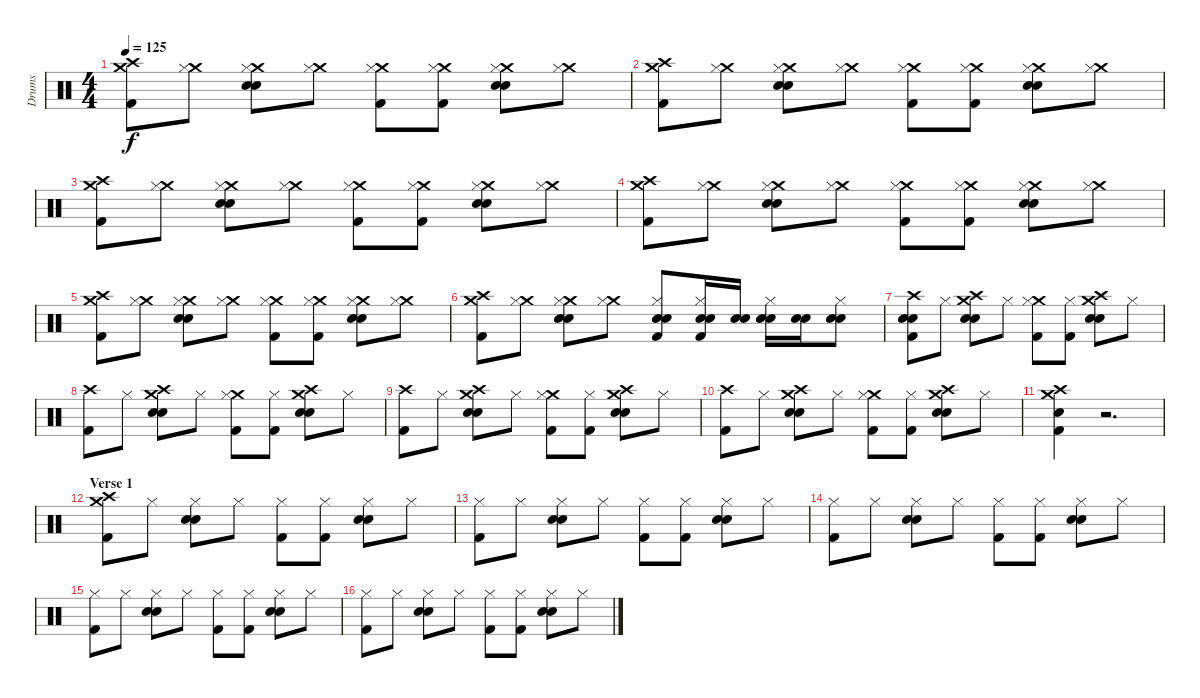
\track ("Drums" "Drums") {instrument percussion}
\staff {score}
\articulation defaults
\ts (4 4)
\tempo 125
\clef neutral
\ks c
("Crash medium (hit)" "Crash high (hit)" "Kick (hit) 2").8{dy f} ("Crash medium (hit)" "Hi-Hat (closed)").8 ("Crash medium (hit)" "Hi-Hat (closed)" "Snare (hit) 2" "Snare (hit) 2").8 ("Crash medium (hit)" "Hi-Hat (closed)").8 ("Crash medium (hit)" "Hi-Hat (closed)" "Kick (hit) 2").8 ("Crash medium (hit)" "Hi-Hat (closed)" "Kick (hit) 2").8 ("Crash medium (hit)" "Hi-Hat (closed)" "Snare (hit) 2" "Snare (hit) 2").8 ("Crash medium (hit)" "Hi-Hat (closed)").8 |
("Crash medium (hit)" "Crash high (hit)" "Kick (hit) 2").8 ("Crash medium (hit)" "Hi-Hat (closed)").8 ("Crash medium (hit)" "Hi-Hat (closed)" "Snare (hit) 2" "Snare (hit) 2").8 ("Crash medium (hit)" "Hi-Hat (closed)").8 ("Crash medium (hit)" "Hi-Hat (closed)" "Kick (hit) 2").8 ("Crash medium (hit)" "Hi-Hat (closed)" "Kick (hit) 2").8 ("Crash medium (hit)" "Hi-Hat (closed)" "Snare (hit) 2" "Snare (hit) 2").8 ("Crash medium (hit)" "Hi-Hat (closed)").8 |
("Crash medium (hit)" "Crash high (hit)" "Kick (hit) 2").8 ("Crash medium (hit)" "Hi-Hat (closed)").8 ("Crash medium (hit)" "Hi-Hat (closed)" "Snare (hit) 2" "Snare (hit) 2").8 ("Crash medium (hit)" "Hi-Hat (closed)").8 ("Crash medium (hit)" "Hi-Hat (closed)" "Kick (hit) 2").8 ("Crash medium (hit)" "Hi-Hat (closed)" "Kick (hit) 2").8 ("Crash medium (hit)" "Hi-Hat (closed)" "Snare (hit) 2" "Snare (hit) 2").8 ("Crash medium (hit)" "Hi-Hat (closed)").8 |
("Crash medium (hit)" "Crash high (hit)" "Kick (hit) 2").8 ("Crash medium (hit)" "Hi-Hat (closed)").8 ("Crash medium (hit)" "Hi-Hat (closed)" "Snare (hit) 2" "Snare (hit) 2").8 ("Crash medium (hit)" "Hi-Hat (closed)").8 ("Crash medium (hit)" "Hi-Hat (closed)" "Kick (hit) 2").8 ("Crash medium (hit)" "Hi-Hat (closed)" "Kick (hit) 2").8 ("Crash medium (hit)" "Hi-Hat (closed)" "Snare (hit) 2" "Snare (hit) 2").8 ("Crash medium (hit)" "Hi-Hat (closed)").8 |
("Crash medium (hit)" "Crash high (hit)" "Kick (hit) 2").8 ("Crash medium (hit)" "Hi-Hat (closed)").8 ("Crash medium (hit)" "Hi-Hat (closed)" "Snare (hit) 2" "Snare (hit) 2").8 ("Crash medium (hit)" "Hi-Hat (closed)").8 ("Crash medium (hit)" "Hi-Hat (closed)" "Kick (hit) 2").8 ("Crash medium (hit)" "Hi-Hat (closed)" "Kick (hit) 2").8 ("Crash medium (hit)" "Hi-Hat (closed)" "Snare (hit) 2" "Snare (hit) 2").8 ("Crash medium (hit)" "Hi-Hat (closed)").8 |
("Crash medium (hit)" "Crash high (hit)" "Kick (hit) 2").8 ("Crash medium (hit)" "Hi-Hat (closed)").8 ("Crash medium (hit)" "Hi-Hat (closed)" "Snare (hit) 2" "Snare (hit) 2").8 ("Crash medium (hit)" "Hi-Hat (closed)").8 ("Hi-Hat (closed)" "Snare (hit) 2" "Snare (hit) 2" "Kick (hit) 2").8 ("Hi-Hat (closed)" "Snare (hit) 2" "Snare (hit) 2" "Kick (hit) 2").16 ("Snare (hit) 2" "Snare (hit) 2").16 ("Hi-Hat (closed)" "Snare (hit) 2" "Snare (hit) 2").16 ("Snare (hit) 2" "Snare (hit) 2").16 ("Hi-Hat (closed)" "Snare (hit) 2" "Snare (hit) 2").8 |
("Crash high (hit)" "Snare (hit) 2" "Snare (hit) 2" "Kick (hit) 2").8 "Hi-Hat (closed)".8 ("Crash medium (hit)" "Crash high (hit)" "Snare (hit) 2" "Snare (hit) 2").8 "Hi-Hat (closed)".8 ("Crash medium (hit)" "Hi-Hat (closed)" "Kick (hit) 2").8 ("Hi-Hat (closed)" "Kick (hit) 2").8 ("Crash medium (hit)" "Crash high (hit)" "Snare (hit) 2" "Snare (hit) 2").8 "Hi-Hat (closed)".8 |
("Crash high (hit)" "Kick (hit) 2").8 "Hi-Hat (closed)".8 ("Crash medium (hit)" "Crash high (hit)" "Snare (hit) 2" "Snare (hit) 2").8 "Hi-Hat (closed)".8 ("Crash medium (hit)" "Hi-Hat (closed)" "Kick (hit) 2").8 ("Hi-Hat (closed)" "Kick (hit) 2").8 ("Crash medium (hit)" "Crash high (hit)" "Snare (hit) 2" "Snare (hit) 2").8 "Hi-Hat (closed)".8 |
("Crash high (hit)" "Kick (hit) 2").8 "Hi-Hat (closed)".8 ("Crash medium (hit)" "Crash high (hit)" "Snare (hit) 2" "Snare (hit) 2").8 "Hi-Hat (closed)".8 ("Crash medium (hit)" "Hi-Hat (closed)" "Kick (hit) 2").8 ("Hi-Hat (closed)" "Kick (hit) 2").8 ("Crash medium (hit)" "Crash high (hit)" "Snare (hit) 2" "Snare (hit) 2").8 "Hi-Hat (closed)".8 |
("Crash high (hit)" "Kick (hit) 2").8 "Hi-Hat (closed)".8 ("Crash medium (hit)" "Crash high (hit)" "Snare (hit) 2" "Snare (hit) 2").8 "Hi-Hat (closed)".8 ("Crash medium (hit)" "Hi-Hat (closed)" "Kick (hit) 2").8 ("Hi-Hat (closed)" "Kick (hit) 2").8 ("Crash medium (hit)" "Crash high (hit)" "Snare (hit) 2" "Snare (hit) 2").8 "Hi-Hat (closed)".8 |
("Crash medium (hit)" "Crash high (hit)" "Snare (hit) 2" "Kick (hit) 2").4 r.2{d} |
\section ("" "Verse 1")
("Crash medium (hit)" "Crash high (hit)" "Kick (hit) 2").8 "Hi-Hat (closed)".8 ("Hi-Hat (closed)" "Snare (hit) 2" "Snare (hit) 2").8 "Hi-Hat (closed)".8 ("Hi-Hat (closed)" "Kick (hit) 2").8 ("Hi-Hat (closed)" "Kick (hit) 2").8 ("Hi-Hat (closed)" "Snare (hit) 2" "Snare (hit) 2").8 "Hi-Hat (closed)".8 |
("Hi-Hat (closed)" "Kick (hit) 2").8 "Hi-Hat (closed)".8 ("Hi-Hat (closed)" "Snare (hit) 2" "Snare (hit) 2").8 "Hi-Hat (closed)".8 ("Hi-Hat (closed)" "Kick (hit) 2").8 ("Hi-Hat (closed)" "Kick (hit) 2").8 ("Hi-Hat (closed)" "Snare (hit) 2" "Snare (hit) 2").8 "Hi-Hat (closed)".8 |
("Hi-Hat (closed)" "Kick (hit) 2").8 "Hi-Hat (closed)".8 ("Hi-Hat (closed)" "Snare (hit) 2" "Snare (hit) 2").8 "Hi-Hat (closed)".8 ("Hi-Hat (closed)" "Kick (hit) 2").8 ("Hi-Hat (closed)" "Kick (hit) 2").8 ("Hi-Hat (closed)" "Snare (hit) 2" "Snare (hit) 2").8 "Hi-Hat (closed)".8 |
("Hi-Hat (closed)" "Kick (hit) 2").8 "Hi-Hat (closed)".8 ("Hi-Hat (closed)" "Snare (hit) 2" "Snare (hit) 2").8 "Hi-Hat (closed)".8 ("Hi-Hat (closed)" "Kick (hit) 2").8 ("Hi-Hat (closed)" "Kick (hit) 2").8 ("Hi-Hat (closed)" "Snare (hit) 2" "Snare (hit) 2").8 "Hi-Hat (closed)".8 |
("Hi-Hat (closed)" "Kick (hit) 2").8 "Hi-Hat (closed)".8 ("Hi-Hat (closed)" "Snare (hit) 2" "Snare (hit) 2").8 "Hi-Hat (closed)".8 ("Hi-Hat (closed)" "Kick (hit) 2").8 ("Hi-Hat (closed)" "Kick (hit) 2").8 ("Hi-Hat (closed)" "Snare (hit) 2" "Snare (hit) 2").8 "Hi-Hat (closed)".8
